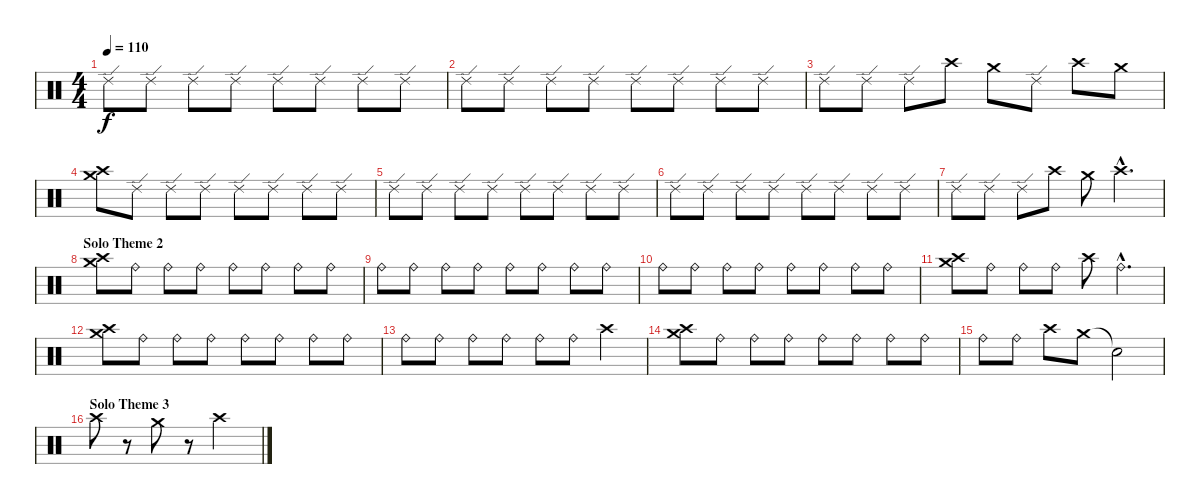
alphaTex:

\track "" {instrument percussion}
\staff {score}
\articulation defaults
\ts (4 4)
\tempo 110
\clef neutral
\ks c "Ride (edge) 2".8{dy f} "Ride (edge) 2".8 "Ride (edge) 2".8 "Ride (edge) 2".8 "Ride (edge) 2".8 "Ride (edge) 2".8 "Ride (edge) 2".8 "Ride (edge) 2".8
|
"Ride (edge) 2".8 "Ride (edge) 2".8 "Ride (edge) 2".8 "Ride (edge) 2".8 "Ride (edge) 2".8 "Ride (edge) 2".8 "Ride (edge) 2".8 "Ride (edge) 2".8 |
"Ride (edge) 2".8 "Ride (edge) 2".8 "Ride (edge) 2".8 "Crash high (hit)".8 "Crash medium (hit)".8 "Ride (edge) 2".8 "Crash high (hit)".8 "Crash medium (hit)".8 |
("Crash medium (hit)" "Crash high (hit)").8 "Ride (edge) 2".8 "Ride (edge) 2".8 "Ride (edge) 2".8 "Ride (edge) 2".8 "Ride (edge) 2".8 "Ride (edge) 2".8 "Ride (edge) 2".8 |
"Ride (edge) 2".8 "Ride (edge) 2".8 "Ride (edge) 2".8 "Ride (edge) 2".8 "Ride (edge) 2".8 "Ride (edge) 2".8 "Ride (edge) 2".8 "Ride (edge) 2".8 |
"Ride (edge) 2".8 "Ride (edge) 2".8 "Ride (edge) 2".8 "Ride (edge) 2".8 "Ride (edge) 2".8 "Ride (edge) 2".8 "Ride (edge) 2".8 "Ride (edge) 2".8 |
"Ride (edge) 2".8 "Ride (edge) 2".8 "Ride (edge) 2".8 "Crash high (hit)".8 "Crash medium (hit)".8 "Crash high (hit)"{hac}.4{d} |
\section ("" "Solo Theme 2")
("Crash medium (hit)" "Crash high (hit)").8 "Ride (bell)".8 "Ride (bell)".8 "Ride (bell)".8 "Ride (bell)".8 "Ride (bell)".8 "Ride (bell)".8 "Ride (bell)".8 |
"Ride (bell)".8 "Ride (bell)".8 "Ride (bell)".8 "Ride (bell)".8 "Ride (bell)".8 "Ride (bell)".8 "Ride (bell)".8 "Ride (bell)".8 |
"Ride (bell)".8 "Ride (bell)".8 "Ride (bell)".8 "Ride (bell)".8 "Ride (bell)".8 "Ride (bell)".8 "Ride (bell)".8 "Ride (bell)".8 |
("Crash medium (hit)" "Crash high (hit)").8 "Ride (bell)".8 "Ride (bell)".8 "Ride (bell)".8 "Crash high (hit)".8 "Ride (bell)"{hac}.4{d} |
("Crash medium (hit)" "Crash high (hit)").8 "Ride (bell)".8 "Ride (bell)".8 "Ride (bell)".8 "Ride (bell)".8 "Ride (bell)".8 "Ride (bell)".8 "Ride (bell)".8 |
"Ride (bell)".8 "Ride (bell)".8 "Ride (bell)".8 "Ride (bell)".8 "Ride (bell)".8 "Ride (bell)".8 "Crash high (hit)".4 |
("Crash medium (hit)" "Crash high (hit)").8 "Ride (bell)".8 "Ride (bell)".8 "Ride (bell)".8 "Ride (bell)".8 "Ride (bell)".8 "Ride (bell)".8 "Ride (bell)".8 |
"Ride (bell)".8 "Ride (bell)".8 "Crash high (hit)".8 "Crash medium (hit)".8 "Snare (hit)"{t}.2 |
\section ("" "Solo Theme 3")
"Crash high (hit)".8 r.8 "Crash medium (hit)".8 r.8 "Crash high (hit)".2
